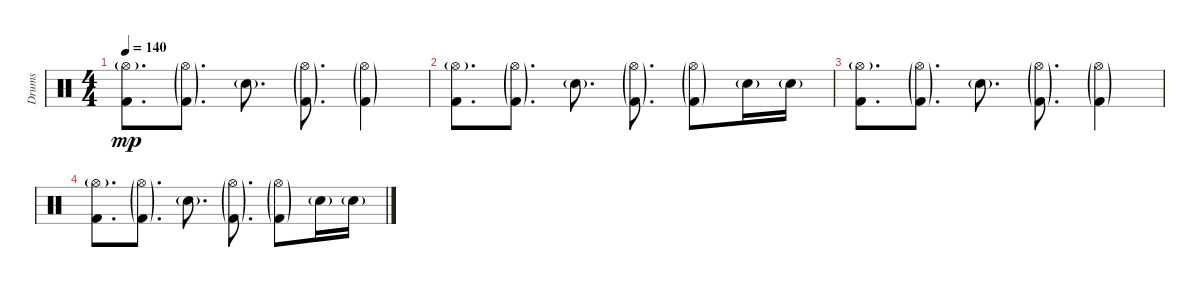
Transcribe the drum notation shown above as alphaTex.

\track ("Drums" "Drums") {instrument percussion}
\staff {score}
\articulation defaults
\ts (4 4)
\tempo 140
\clef neutral
\ks c
("Hi-Hat (open)"{g} "Kick (hit) 2").8{d dy mp} ("Hi-Hat (open)"{g} "Kick (hit) 2"{g}).8{d} "Electric Snare (hit)"{g}.8{d} ("Hi-Hat (open)"{g} "Kick (hit) 2"{g}).8{d} ("Hi-Hat (open)"{g} "Kick (hit) 2"{g}).4 |
("Hi-Hat (open)"{g} "Kick (hit) 2").8{d} ("Hi-Hat (open)"{g} "Kick (hit) 2"{g}).8{d} "Electric Snare (hit)"{g}.8{d} ("Hi-Hat (open)"{g} "Kick (hit) 2"{g}).8{d} ("Hi-Hat (open)"{g} "Kick (hit) 2"{g}).8 "Electric Snare (hit)"{g}.16 "Electric Snare (hit)"{g}.16 |
("Hi-Hat (open)"{g} "Kick (hit) 2").8{d} ("Hi-Hat (open)"{g} "Kick (hit) 2"{g}).8{d} "Electric Snare (hit)"{g}.8{d} ("Hi-Hat (open)"{g} "Kick (hit) 2"{g}).8{d} ("Hi-Hat (open)"{g} "Kick (hit) 2"{g}).4 |
("Hi-Hat (open)"{g} "Kick (hit) 2").8{d} ("Hi-Hat (open)"{g} "Kick (hit) 2"{g}).8{d} "Electric Snare (hit)"{g}.8{d} ("Hi-Hat (open)"{g} "Kick (hit) 2"{g}).8{d} ("Hi-Hat (open)"{g} "Kick (hit) 2"{g}).8 "Electric Snare (hit)"{g}.16 "Electric Snare (hit)"{g}.16
